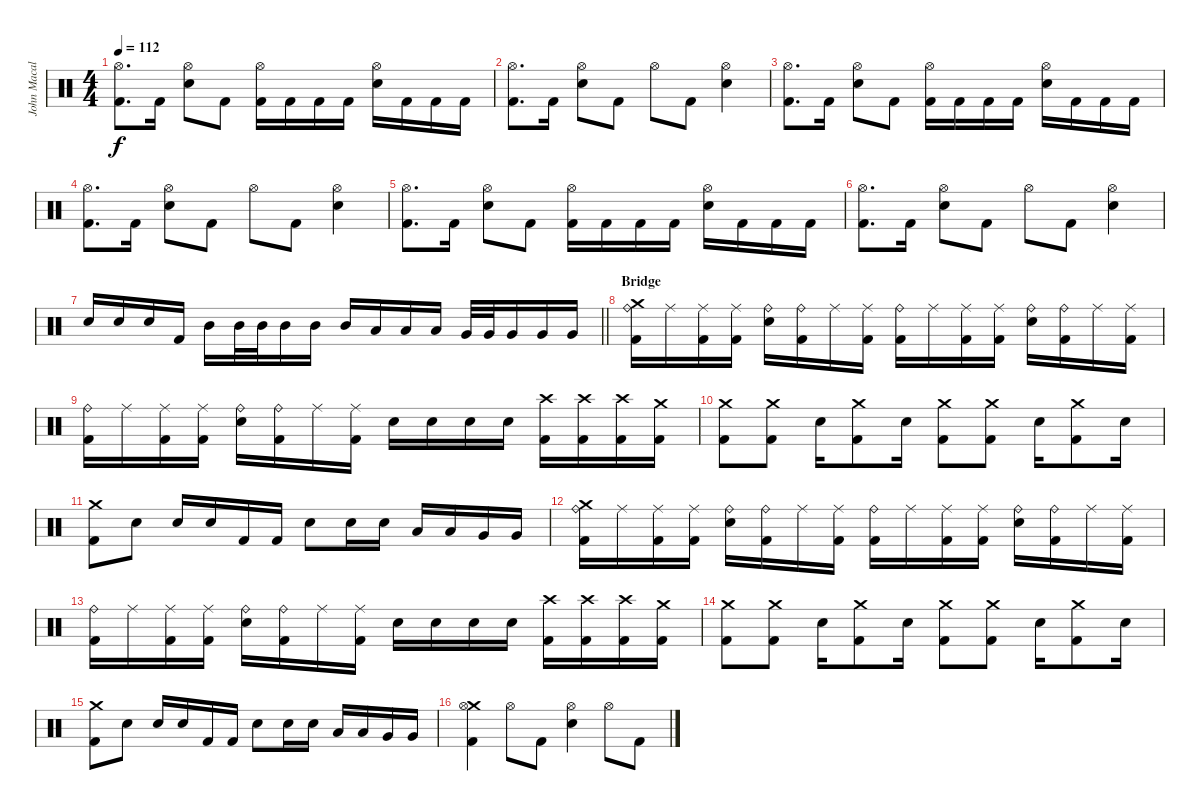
\track ("John Macaluso" "John Macal") {instrument percussion}
\staff {score}
\articulation defaults
\ts (4 4)
\tempo 112
\clef neutral
\ks c
("Hi-Hat (open)" "Kick (hit) 2").8{d dy f} "Kick (hit) 2".16 ("Hi-Hat (open)" "Snare (hit) 2").8 "Kick (hit) 2".8 ("Hi-Hat (open)" "Kick (hit) 2").16 "Kick (hit) 2".16 "Kick (hit) 2".16 "Kick (hit) 2".16 ("Hi-Hat (open)" "Snare (hit) 2").16 "Kick (hit) 2".16 "Kick (hit) 2".16 "Kick (hit) 2".16 |
("Hi-Hat (open)" "Kick (hit) 2").8{d} "Kick (hit) 2".16 ("Hi-Hat (open)" "Snare (hit) 2").8 "Kick (hit) 2".8 "Hi-Hat (open)".8 "Kick (hit) 2".8 ("Hi-Hat (open)" "Snare (hit) 2").4 |
("Hi-Hat (open)" "Kick (hit) 2").8{d} "Kick (hit) 2".16 ("Hi-Hat (open)" "Snare (hit) 2").8 "Kick (hit) 2".8 ("Hi-Hat (open)" "Kick (hit) 2").16 "Kick (hit) 2".16 "Kick (hit) 2".16 "Kick (hit) 2".16 ("Hi-Hat (open)" "Snare (hit) 2").16 "Kick (hit) 2".16 "Kick (hit) 2".16 "Kick (hit) 2".16 |
("Hi-Hat (open)" "Kick (hit) 2").8{d} "Kick (hit) 2".16 ("Hi-Hat (open)" "Snare (hit) 2").8 "Kick (hit) 2".8 "Hi-Hat (open)".8 "Kick (hit) 2".8 ("Hi-Hat (open)" "Snare (hit) 2").4 |
("Hi-Hat (open)" "Kick (hit) 2").8{d} "Kick (hit) 2".16 ("Hi-Hat (open)" "Snare (hit) 2").8 "Kick (hit) 2".8 ("Hi-Hat (open)" "Kick (hit) 2").16 "Kick (hit) 2".16 "Kick (hit) 2".16 "Kick (hit) 2".16 ("Hi-Hat (open)" "Snare (hit) 2").16 "Kick (hit) 2".16 "Kick (hit) 2".16 "Kick (hit) 2".16 |
("Hi-Hat (open)" "Kick (hit) 2").8{d} "Kick (hit) 2".16 ("Hi-Hat (open)" "Snare (hit) 2").8 "Kick (hit) 2".8 "Hi-Hat (open)".8 "Kick (hit) 2".8 ("Hi-Hat (open)" "Snare (hit) 2").4 |
\barLineRight lightlight "Snare (hit) 2".16 "Snare (hit) 2".16 "Snare (hit) 2".16 "Kick (hit) 2".16 "Mid Tom (hit)".16 "Mid Tom (hit)".32 "Mid Tom (hit)".32 "Mid Tom (hit)".16 "Mid Tom (hit)".16 "Mid Tom (hit)".16 "Low Tom (hit)".16 "Low Tom (hit)".16 "Low Tom (hit)".16 "Very Low Tom (hit)".32 "Very Low Tom (hit)".32 "Very Low Tom (hit)".16 "Very Low Tom (hit)".16 "Very Low Tom (hit)".16
|
\section ("" "Bridge")
("Crash medium (hit)" "Ride (bell)" "Kick (hit) 2").16 "Ride (middle)".16 ("Ride (middle)" "Kick (hit) 2").16 ("Ride (middle)" "Kick (hit) 2").16 ("Ride (bell)" "Snare (hit) 2").16 ("Ride (bell)" "Kick (hit) 2").16 "Ride (middle)".16 ("Ride (middle)" "Kick (hit) 2").16 ("Ride (bell)" "Kick (hit) 2").16 "Ride (middle)".16 ("Ride (middle)" "Kick (hit) 2").16 ("Ride (middle)" "Kick (hit) 2").16 ("Ride (bell)" "Snare (hit) 2").16 ("Ride (bell)" "Kick (hit) 2").16 "Ride (middle)".16 ("Ride (middle)" "Kick (hit) 2").16 |
("Ride (bell)" "Kick (hit) 2").16 "Ride (middle)".16 ("Ride (middle)" "Kick (hit) 2").16 ("Ride (middle)" "Kick (hit) 2").16 ("Ride (bell)" "Snare (hit) 2").16 ("Ride (bell)" "Kick (hit) 2").16 "Ride (middle)".16 ("Ride (middle)" "Kick (hit) 2").16 "Snare (hit) 2".16 "Snare (hit) 2".16 "Snare (hit) 2".16 "Snare (hit) 2".16 ("Crash high (hit)" "Kick (hit) 2").16 ("Crash high (hit)" "Kick (hit) 2").16 ("Crash high (hit)" "Kick (hit) 2").16 ("Crash medium (hit)" "Kick (hit) 2").16 |
("Crash medium (hit)" "Kick (hit) 2").8 ("Crash medium (hit)" "Kick (hit) 2").8 "Snare (hit) 2".16 ("Crash medium (hit)" "Kick (hit) 2").8 "Snare (hit) 2".16 ("Crash medium (hit)" "Kick (hit) 2").8 ("Crash medium (hit)" "Kick (hit) 2").8 "Snare (hit) 2".16 ("Crash medium (hit)" "Kick (hit) 2").8 "Snare (hit) 2".16 |
("Crash medium (hit)" "Kick (hit) 2").8 "Snare (hit) 2".8 "Snare (hit) 2".16 "Snare (hit) 2".16 "Kick (hit) 2".16 "Kick (hit) 2".16 "Snare (hit) 2".8 "Snare (hit) 2".16 "Snare (hit) 2".16 "Low Tom (hit)".16 "Low Tom (hit)".16 "Very Low Tom (hit)".16 "Very Low Tom (hit)".16 |
("Crash medium (hit)" "Ride (bell)" "Kick (hit) 2").16 "Ride (middle)".16 ("Ride (middle)" "Kick (hit) 2").16 ("Ride (middle)" "Kick (hit) 2").16 ("Ride (bell)" "Snare (hit) 2").16 ("Ride (bell)" "Kick (hit) 2").16 "Ride (middle)".16 ("Ride (middle)" "Kick (hit) 2").16 ("Ride (bell)" "Kick (hit) 2").16 "Ride (middle)".16 ("Ride (middle)" "Kick (hit) 2").16 ("Ride (middle)" "Kick (hit) 2").16 ("Ride (bell)" "Snare (hit) 2").16 ("Ride (bell)" "Kick (hit) 2").16 "Ride (middle)".16 ("Ride (middle)" "Kick (hit) 2").16 |
("Ride (bell)" "Kick (hit) 2").16 "Ride (middle)".16 ("Ride (middle)" "Kick (hit) 2").16 ("Ride (middle)" "Kick (hit) 2").16 ("Ride (bell)" "Snare (hit) 2").16 ("Ride (bell)" "Kick (hit) 2").16 "Ride (middle)".16 ("Ride (middle)" "Kick (hit) 2").16 "Snare (hit) 2".16 "Snare (hit) 2".16 "Snare (hit) 2".16 "Snare (hit) 2".16 ("Crash high (hit)" "Kick (hit) 2").16 ("Crash high (hit)" "Kick (hit) 2").16 ("Crash high (hit)" "Kick (hit) 2").16 ("Crash medium (hit)" "Kick (hit) 2").16 |
("Crash medium (hit)" "Kick (hit) 2").8 ("Crash medium (hit)" "Kick (hit) 2").8 "Snare (hit) 2".16 ("Crash medium (hit)" "Kick (hit) 2").8 "Snare (hit) 2".16 ("Crash medium (hit)" "Kick (hit) 2").8 ("Crash medium (hit)" "Kick (hit) 2").8 "Snare (hit) 2".16 ("Crash medium (hit)" "Kick (hit) 2").8 "Snare (hit) 2".16 |
("Crash medium (hit)" "Kick (hit) 2").8 "Snare (hit) 2".8 "Snare (hit) 2".16 "Snare (hit) 2".16 "Kick (hit) 2".16 "Kick (hit) 2".16 "Snare (hit) 2".8 "Snare (hit) 2".16 "Snare (hit) 2".16 "Low Tom (hit)".16 "Low Tom (hit)".16 "Very Low Tom (hit)".16 "Very Low Tom (hit)".16 |
("Crash medium (hit)" "Hi-Hat (open)" "Kick (hit) 2").4 "Hi-Hat (open)".8 "Kick (hit) 2".8 ("Hi-Hat (open)" "Snare (hit) 2").4 "Hi-Hat (open)".8 "Kick (hit) 2".8
